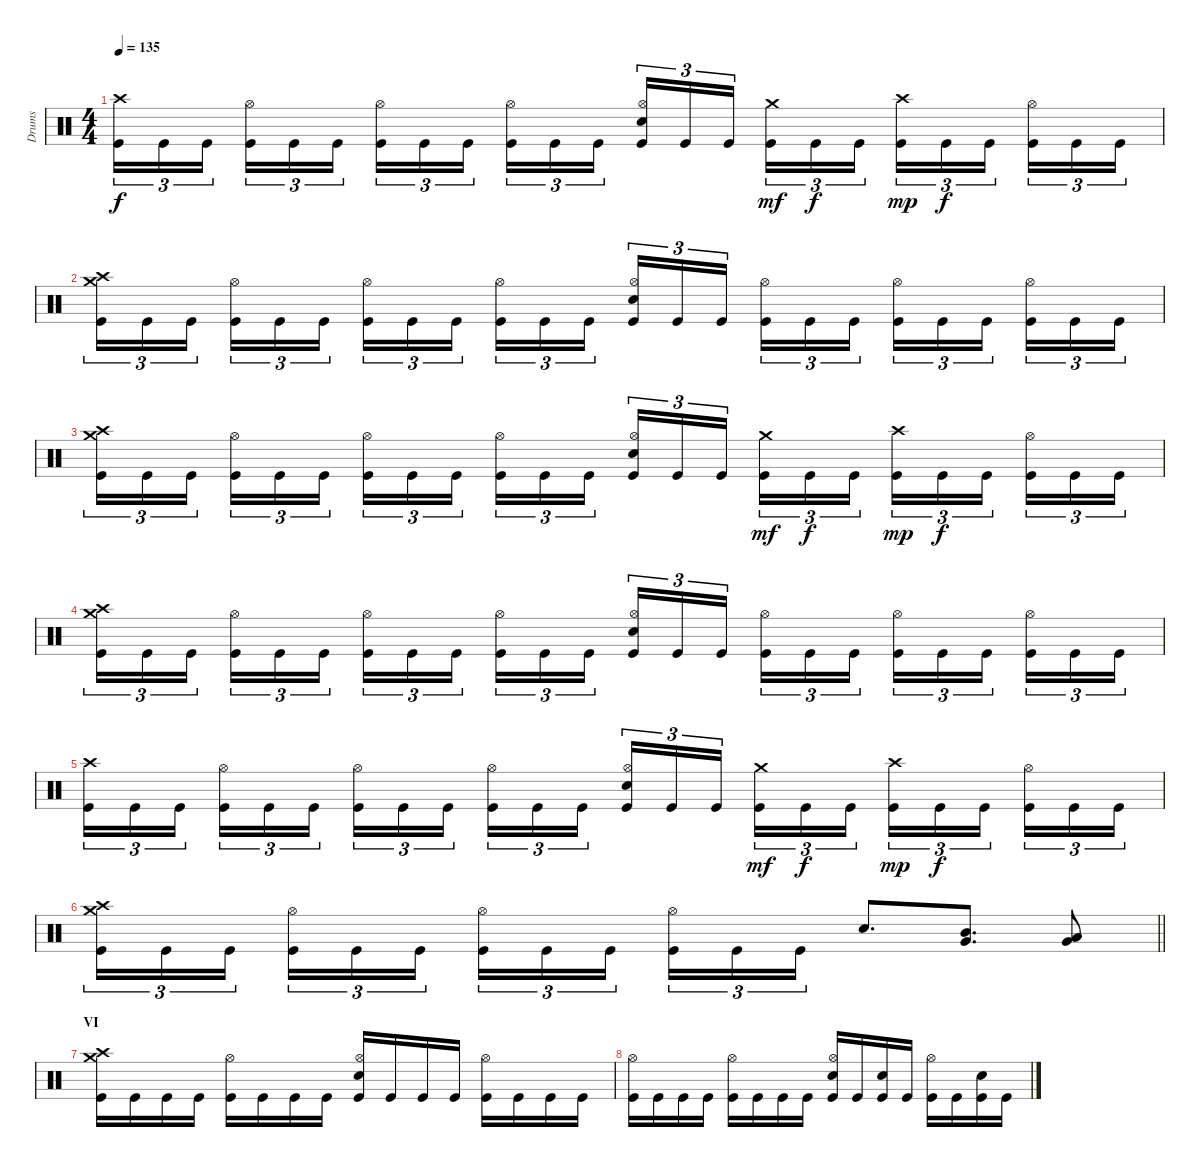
\track ("Drums" "Drums") {instrument percussion}
\staff {score}
\articulation defaults
\ts (4 4)
\tempo 135
\clef neutral
\ks c
("Kick (hit)" "Crash high (hit)").16{tu (3 2) dy f} "Kick (hit)".16{tu (3 2)} "Kick (hit)".16{tu (3 2) beam splitsecondary} ("Kick (hit)" "Hi-Hat (open)").16{tu (3 2)} "Kick (hit)".16{tu (3 2)} "Kick (hit)".16{tu (3 2)} ("Kick (hit)" "Hi-Hat (open)").16{tu (3 2)} "Kick (hit)".16{tu (3 2)} "Kick (hit)".16{tu (3 2) beam splitsecondary} ("Kick (hit)" "Hi-Hat (open)").16{tu (3 2)} "Kick (hit)".16{tu (3 2)} "Kick (hit)".16{tu (3 2)} ("Kick (hit)" "Electric Snare (hit)" "Hi-Hat (open)").16{tu (3 2)} "Kick (hit)".16{tu (3 2)} "Kick (hit)".16{tu (3 2) beam splitsecondary} ("Kick (hit)" "Crash medium (hit)").16{tu (3 2) dy mf} "Kick (hit)".16{tu (3 2) dy f} "Kick (hit)".16{tu (3 2)} ("Kick (hit)" "Crash high (hit)").16{tu (3 2) dy mp} "Kick (hit)".16{tu (3 2) dy f} "Kick (hit)".16{tu (3 2) beam splitsecondary} ("Kick (hit)" "Hi-Hat (open)").16{tu (3 2)} "Kick (hit)".16{tu (3 2)} "Kick (hit)".16{tu (3 2)} |
("Kick (hit)" "Crash medium (hit)" "Crash high (hit)").16{tu (3 2)} "Kick (hit)".16{tu (3 2)} "Kick (hit)".16{tu (3 2) beam splitsecondary} ("Kick (hit)" "Hi-Hat (open)").16{tu (3 2)} "Kick (hit)".16{tu (3 2)} "Kick (hit)".16{tu (3 2)} ("Kick (hit)" "Hi-Hat (open)").16{tu (3 2)} "Kick (hit)".16{tu (3 2)} "Kick (hit)".16{tu (3 2) beam splitsecondary} ("Kick (hit)" "Hi-Hat (open)").16{tu (3 2)} "Kick (hit)".16{tu (3 2)} "Kick (hit)".16{tu (3 2)} ("Kick (hit)" "Electric Snare (hit)" "Hi-Hat (open)").16{tu (3 2)} "Kick (hit)".16{tu (3 2)} "Kick (hit)".16{tu (3 2) beam splitsecondary} ("Kick (hit)" "Hi-Hat (open)").16{tu (3 2)} "Kick (hit)".16{tu (3 2)} "Kick (hit)".16{tu (3 2)} ("Kick (hit)" "Hi-Hat (open)").16{tu (3 2)} "Kick (hit)".16{tu (3 2)} "Kick (hit)".16{tu (3 2) beam splitsecondary} ("Kick (hit)" "Hi-Hat (open)").16{tu (3 2)} "Kick (hit)".16{tu (3 2)} "Kick (hit)".16{tu (3 2)} |
("Kick (hit)" "Crash high (hit)" "Crash medium (hit)").16{tu (3 2)} "Kick (hit)".16{tu (3 2)} "Kick (hit)".16{tu (3 2) beam splitsecondary} ("Kick (hit)" "Hi-Hat (open)").16{tu (3 2)} "Kick (hit)".16{tu (3 2)} "Kick (hit)".16{tu (3 2)} ("Kick (hit)" "Hi-Hat (open)").16{tu (3 2)} "Kick (hit)".16{tu (3 2)} "Kick (hit)".16{tu (3 2) beam splitsecondary} ("Kick (hit)" "Hi-Hat (open)").16{tu (3 2)} "Kick (hit)".16{tu (3 2)} "Kick (hit)".16{tu (3 2)} ("Kick (hit)" "Electric Snare (hit)" "Hi-Hat (open)").16{tu (3 2)} "Kick (hit)".16{tu (3 2)} "Kick (hit)".16{tu (3 2) beam splitsecondary} ("Kick (hit)" "Crash medium (hit)").16{tu (3 2) dy mf} "Kick (hit)".16{tu (3 2) dy f} "Kick (hit)".16{tu (3 2)} ("Kick (hit)" "Crash high (hit)").16{tu (3 2) dy mp} "Kick (hit)".16{tu (3 2) dy f} "Kick (hit)".16{tu (3 2) beam splitsecondary} ("Kick (hit)" "Hi-Hat (open)").16{tu (3 2)} "Kick (hit)".16{tu (3 2)} "Kick (hit)".16{tu (3 2)} |
("Kick (hit)" "Crash medium (hit)" "Crash high (hit)").16{tu (3 2)} "Kick (hit)".16{tu (3 2)} "Kick (hit)".16{tu (3 2) beam splitsecondary} ("Kick (hit)" "Hi-Hat (open)").16{tu (3 2)} "Kick (hit)".16{tu (3 2)} "Kick (hit)".16{tu (3 2)} ("Kick (hit)" "Hi-Hat (open)").16{tu (3 2)} "Kick (hit)".16{tu (3 2)} "Kick (hit)".16{tu (3 2) beam splitsecondary} ("Kick (hit)" "Hi-Hat (open)").16{tu (3 2)} "Kick (hit)".16{tu (3 2)} "Kick (hit)".16{tu (3 2)} ("Kick (hit)" "Electric Snare (hit)" "Hi-Hat (open)").16{tu (3 2)} "Kick (hit)".16{tu (3 2)} "Kick (hit)".16{tu (3 2) beam splitsecondary} ("Kick (hit)" "Hi-Hat (open)").16{tu (3 2)} "Kick (hit)".16{tu (3 2)} "Kick (hit)".16{tu (3 2)} ("Kick (hit)" "Hi-Hat (open)").16{tu (3 2)} "Kick (hit)".16{tu (3 2)} "Kick (hit)".16{tu (3 2) beam splitsecondary} ("Kick (hit)" "Hi-Hat (open)").16{tu (3 2)} "Kick (hit)".16{tu (3 2)} "Kick (hit)".16{tu (3 2)} |
("Kick (hit)" "Crash high (hit)").16{tu (3 2)} "Kick (hit)".16{tu (3 2)} "Kick (hit)".16{tu (3 2) beam splitsecondary} ("Kick (hit)" "Hi-Hat (open)").16{tu (3 2)} "Kick (hit)".16{tu (3 2)} "Kick (hit)".16{tu (3 2)} ("Kick (hit)" "Hi-Hat (open)").16{tu (3 2)} "Kick (hit)".16{tu (3 2)} "Kick (hit)".16{tu (3 2) beam splitsecondary} ("Kick (hit)" "Hi-Hat (open)").16{tu (3 2)} "Kick (hit)".16{tu (3 2)} "Kick (hit)".16{tu (3 2)} ("Kick (hit)" "Electric Snare (hit)" "Hi-Hat (open)").16{tu (3 2)} "Kick (hit)".16{tu (3 2)} "Kick (hit)".16{tu (3 2) beam splitsecondary} ("Kick (hit)" "Crash medium (hit)").16{tu (3 2) dy mf} "Kick (hit)".16{tu (3 2) dy f} "Kick (hit)".16{tu (3 2)} ("Kick (hit)" "Crash high (hit)").16{tu (3 2) dy mp} "Kick (hit)".16{tu (3 2) dy f} "Kick (hit)".16{tu (3 2) beam splitsecondary} ("Kick (hit)" "Hi-Hat (open)").16{tu (3 2)} "Kick (hit)".16{tu (3 2)} "Kick (hit)".16{tu (3 2)} |
\barLineRight lightlight
("Kick (hit)" "Crash medium (hit)" "Crash high (hit)").16{tu (3 2)} "Kick (hit)".16{tu (3 2)} "Kick (hit)".16{tu (3 2) beam splitsecondary} ("Kick (hit)" "Hi-Hat (open)").16{tu (3 2)} "Kick (hit)".16{tu (3 2)} "Kick (hit)".16{tu (3 2)} ("Kick (hit)" "Hi-Hat (open)").16{tu (3 2)} "Kick (hit)".16{tu (3 2)} "Kick (hit)".16{tu (3 2) beam splitsecondary} ("Kick (hit)" "Hi-Hat (open)").16{tu (3 2)} "Kick (hit)".16{tu (3 2)} "Kick (hit)".16{tu (3 2)} "Electric Snare (hit)".8{d} ("Very Low Tom (hit)" "Mid Tom (hit)").8{d} ("Very Low Tom (hit)" "Low Tom (hit)").8 |
\section ("" "VI")
("Kick (hit)" "Crash high (hit)" "Crash medium (hit)").16 "Kick (hit)".16 "Kick (hit)".16 "Kick (hit)".16 ("Kick (hit)" "Hi-Hat (open)").16 "Kick (hit)".16 "Kick (hit)".16 "Kick (hit)".16 ("Kick (hit)" "Electric Snare (hit)" "Hi-Hat (open)").16 "Kick (hit)".16 "Kick (hit)".16 "Kick (hit)".16 ("Kick (hit)" "Hi-Hat (open)").16 "Kick (hit)".16 "Kick (hit)".16 "Kick (hit)".16 |
("Kick (hit)" "Hi-Hat (open)").16 "Kick (hit)".16 "Kick (hit)".16 "Kick (hit)".16 ("Kick (hit)" "Hi-Hat (open)").16 "Kick (hit)".16 "Kick (hit)".16 "Kick (hit)".16 ("Kick (hit)" "Electric Snare (hit)" "Hi-Hat (open)").16 "Kick (hit)".16 ("Kick (hit)" "Electric Snare (hit)").16 "Kick (hit)".16 ("Kick (hit)" "Hi-Hat (open)").16 "Kick (hit)".16 ("Kick (hit)" "Electric Snare (hit)").16 "Kick (hit)".16
